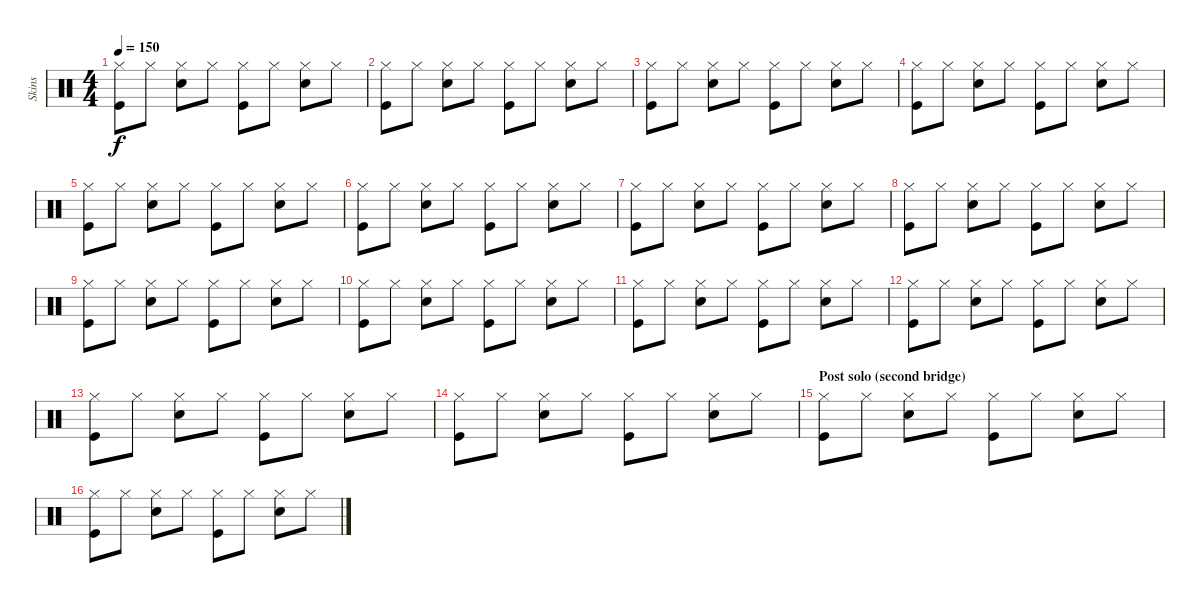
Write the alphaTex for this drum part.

\track ("Skins" "Skins") {instrument percussion}
\staff {score}
\articulation defaults
\ts (4 4)
\tempo 150
\clef neutral
\ks c
("Hi-Hat (closed)" "Kick (hit)").8{dy f} "Hi-Hat (closed)".8 ("Hi-Hat (closed)" "Snare (hit) 2").8 "Hi-Hat (closed)".8 ("Hi-Hat (closed)" "Kick (hit)").8 "Hi-Hat (closed)".8 ("Hi-Hat (closed)" "Snare (hit) 2").8 "Hi-Hat (closed)".8 |
("Hi-Hat (closed)" "Kick (hit)").8 "Hi-Hat (closed)".8 ("Hi-Hat (closed)" "Snare (hit) 2").8 "Hi-Hat (closed)".8 ("Hi-Hat (closed)" "Kick (hit)").8 "Hi-Hat (closed)".8 ("Hi-Hat (closed)" "Snare (hit) 2").8 "Hi-Hat (closed)".8 |
("Hi-Hat (closed)" "Kick (hit)").8 "Hi-Hat (closed)".8 ("Hi-Hat (closed)" "Snare (hit) 2").8 "Hi-Hat (closed)".8 ("Hi-Hat (closed)" "Kick (hit)").8 "Hi-Hat (closed)".8 ("Hi-Hat (closed)" "Snare (hit) 2").8 "Hi-Hat (closed)".8 |
("Hi-Hat (closed)" "Kick (hit)").8 "Hi-Hat (closed)".8 ("Hi-Hat (closed)" "Snare (hit) 2").8 "Hi-Hat (closed)".8 ("Hi-Hat (closed)" "Kick (hit)").8 "Hi-Hat (closed)".8 ("Hi-Hat (closed)" "Snare (hit) 2").8 "Hi-Hat (closed)".8 |
("Hi-Hat (closed)" "Kick (hit)").8 "Hi-Hat (closed)".8 ("Hi-Hat (closed)" "Snare (hit) 2").8 "Hi-Hat (closed)".8 ("Hi-Hat (closed)" "Kick (hit)").8 "Hi-Hat (closed)".8 ("Hi-Hat (closed)" "Snare (hit) 2").8 "Hi-Hat (closed)".8 |
("Hi-Hat (closed)" "Kick (hit)").8 "Hi-Hat (closed)".8 ("Hi-Hat (closed)" "Snare (hit) 2").8 "Hi-Hat (closed)".8 ("Hi-Hat (closed)" "Kick (hit)").8 "Hi-Hat (closed)".8 ("Hi-Hat (closed)" "Snare (hit) 2").8 "Hi-Hat (closed)".8 |
("Hi-Hat (closed)" "Kick (hit)").8 "Hi-Hat (closed)".8 ("Hi-Hat (closed)" "Snare (hit) 2").8 "Hi-Hat (closed)".8 ("Hi-Hat (closed)" "Kick (hit)").8 "Hi-Hat (closed)".8 ("Hi-Hat (closed)" "Snare (hit) 2").8 "Hi-Hat (closed)".8 |
("Hi-Hat (closed)" "Kick (hit)").8 "Hi-Hat (closed)".8 ("Hi-Hat (closed)" "Snare (hit) 2").8 "Hi-Hat (closed)".8 ("Hi-Hat (closed)" "Kick (hit)").8 "Hi-Hat (closed)".8 ("Hi-Hat (closed)" "Snare (hit) 2").8 "Hi-Hat (closed)".8 |
("Hi-Hat (closed)" "Kick (hit)").8 "Hi-Hat (closed)".8 ("Hi-Hat (closed)" "Snare (hit) 2").8 "Hi-Hat (closed)".8 ("Hi-Hat (closed)" "Kick (hit)").8 "Hi-Hat (closed)".8 ("Hi-Hat (closed)" "Snare (hit) 2").8 "Hi-Hat (closed)".8 |
("Hi-Hat (closed)" "Kick (hit)").8 "Hi-Hat (closed)".8 ("Hi-Hat (closed)" "Snare (hit) 2").8 "Hi-Hat (closed)".8 ("Hi-Hat (closed)" "Kick (hit)").8 "Hi-Hat (closed)".8 ("Hi-Hat (closed)" "Snare (hit) 2").8 "Hi-Hat (closed)".8 |
("Hi-Hat (closed)" "Kick (hit)").8 "Hi-Hat (closed)".8 ("Hi-Hat (closed)" "Snare (hit) 2").8 "Hi-Hat (closed)".8 ("Hi-Hat (closed)" "Kick (hit)").8 "Hi-Hat (closed)".8 ("Hi-Hat (closed)" "Snare (hit) 2").8 "Hi-Hat (closed)".8 |
("Hi-Hat (closed)" "Kick (hit)").8 "Hi-Hat (closed)".8 ("Hi-Hat (closed)" "Snare (hit) 2").8 "Hi-Hat (closed)".8 ("Hi-Hat (closed)" "Kick (hit)").8 "Hi-Hat (closed)".8 ("Hi-Hat (closed)" "Snare (hit) 2").8 "Hi-Hat (closed)".8 |
("Hi-Hat (closed)" "Kick (hit)").8 "Hi-Hat (closed)".8 ("Hi-Hat (closed)" "Snare (hit) 2").8 "Hi-Hat (closed)".8 ("Hi-Hat (closed)" "Kick (hit)").8 "Hi-Hat (closed)".8 ("Hi-Hat (closed)" "Snare (hit) 2").8 "Hi-Hat (closed)".8 |
("Hi-Hat (closed)" "Kick (hit)").8 "Hi-Hat (closed)".8 ("Hi-Hat (closed)" "Snare (hit) 2").8 "Hi-Hat (closed)".8 ("Hi-Hat (closed)" "Kick (hit)").8 "Hi-Hat (closed)".8 ("Hi-Hat (closed)" "Snare (hit) 2").8 "Hi-Hat (closed)".8 |
\section ("" "Post solo (second bridge)")
("Hi-Hat (closed)" "Kick (hit)").8 "Hi-Hat (closed)".8 ("Hi-Hat (closed)" "Snare (hit) 2").8 "Hi-Hat (closed)".8 ("Hi-Hat (closed)" "Kick (hit)").8 "Hi-Hat (closed)".8 ("Hi-Hat (closed)" "Snare (hit) 2").8 "Hi-Hat (closed)".8 |
("Hi-Hat (closed)" "Kick (hit)").8 "Hi-Hat (closed)".8 ("Hi-Hat (closed)" "Snare (hit) 2").8 "Hi-Hat (closed)".8 ("Hi-Hat (closed)" "Kick (hit)").8 "Hi-Hat (closed)".8 ("Hi-Hat (closed)" "Snare (hit) 2").8 "Hi-Hat (closed)".8
